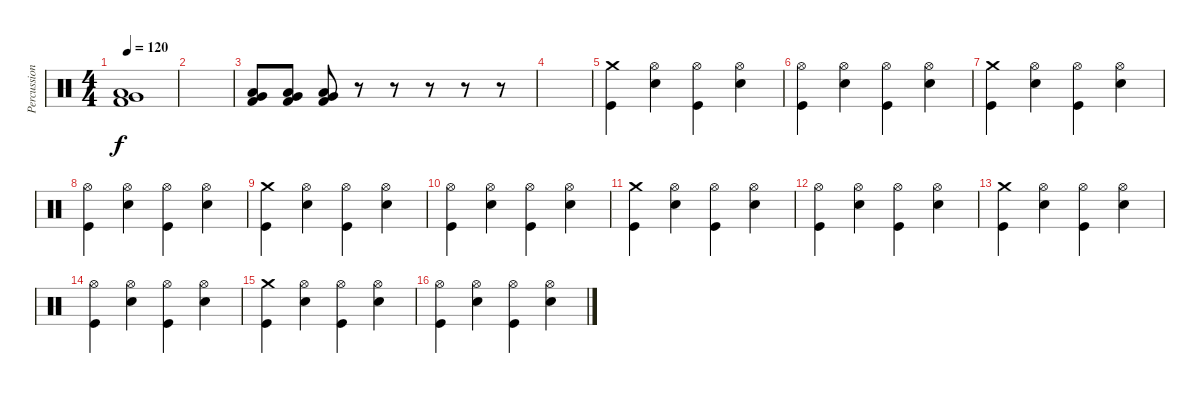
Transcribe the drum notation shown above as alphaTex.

\track ("Percussion" "Percussion") {instrument percussion}
\staff {score}
\articulation defaults
\ts (4 4)
\tempo 120
\clef neutral
\ks c
("Very Low Tom (hit)" "Low Floor Tom (hit)" "Kick (hit) 2").1{dy f} |
|
("Very Low Tom (hit)" "Low Floor Tom (hit)" "Kick (hit) 2").8 ("Very Low Tom (hit)" "Low Floor Tom (hit)" "Kick (hit) 2").8 ("Very Low Tom (hit)" "Low Floor Tom (hit)" "Kick (hit) 2").8 r.8 r.8 r.8 r.8 r.8 |
|
("Crash medium (hit)" "Kick (hit)").4 ("Hi-Hat (open)" "Snare (hit) 2").4 ("Hi-Hat (open)" "Kick (hit)").4 ("Hi-Hat (open)" "Snare (hit) 2").4 |
("Hi-Hat (open)" "Kick (hit)").4 ("Hi-Hat (open)" "Snare (hit) 2").4 ("Hi-Hat (open)" "Kick (hit)").4 ("Hi-Hat (open)" "Snare (hit) 2").4 |
("Crash medium (hit)" "Kick (hit)").4 ("Hi-Hat (open)" "Snare (hit) 2").4 ("Hi-Hat (open)" "Kick (hit)").4 ("Hi-Hat (open)" "Snare (hit) 2").4 |
("Hi-Hat (open)" "Kick (hit)").4 ("Hi-Hat (open)" "Snare (hit) 2").4 ("Hi-Hat (open)" "Kick (hit)").4 ("Hi-Hat (open)" "Snare (hit) 2").4 |
("Crash medium (hit)" "Kick (hit)").4 ("Hi-Hat (open)" "Snare (hit) 2").4 ("Hi-Hat (open)" "Kick (hit)").4 ("Hi-Hat (open)" "Snare (hit) 2").4 |
("Hi-Hat (open)" "Kick (hit)").4 ("Hi-Hat (open)" "Snare (hit) 2").4 ("Hi-Hat (open)" "Kick (hit)").4 ("Hi-Hat (open)" "Snare (hit) 2").4 |
("Crash medium (hit)" "Kick (hit)").4 ("Hi-Hat (open)" "Snare (hit) 2").4 ("Hi-Hat (open)" "Kick (hit)").4 ("Hi-Hat (open)" "Snare (hit) 2").4 |
("Hi-Hat (open)" "Kick (hit)").4 ("Hi-Hat (open)" "Snare (hit) 2").4 ("Hi-Hat (open)" "Kick (hit)").4 ("Hi-Hat (open)" "Snare (hit) 2").4 |
("Crash medium (hit)" "Kick (hit)").4 ("Hi-Hat (open)" "Snare (hit) 2").4 ("Hi-Hat (open)" "Kick (hit)").4 ("Hi-Hat (open)" "Snare (hit) 2").4 |
("Hi-Hat (open)" "Kick (hit)").4 ("Hi-Hat (open)" "Snare (hit) 2").4 ("Hi-Hat (open)" "Kick (hit)").4 ("Hi-Hat (open)" "Snare (hit) 2").4 |
("Crash medium (hit)" "Kick (hit)").4 ("Hi-Hat (open)" "Snare (hit) 2").4 ("Hi-Hat (open)" "Kick (hit)").4 ("Hi-Hat (open)" "Snare (hit) 2").4 |
("Hi-Hat (open)" "Kick (hit)").4 ("Hi-Hat (open)" "Snare (hit) 2").4 ("Hi-Hat (open)" "Kick (hit)").4 ("Hi-Hat (open)" "Snare (hit) 2").4
